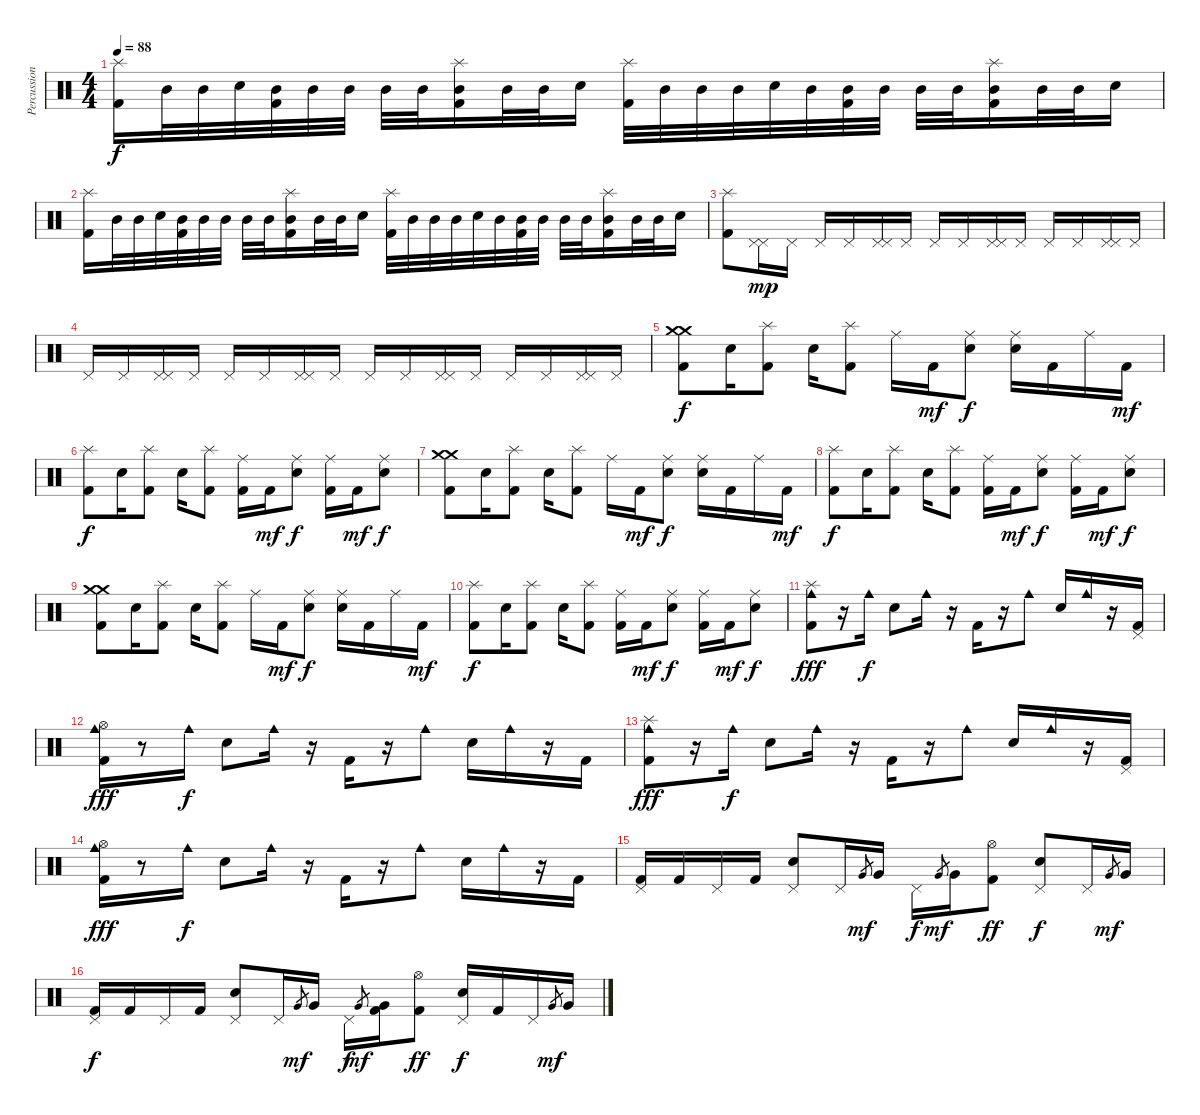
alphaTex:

\track ("Percussion" "Percussion") {instrument percussion}
\staff {score}
\articulation defaults
\ts (4 4)
\tempo 88
\clef neutral
\ks c
("Splash (hit)" "Kick (hit) 2").16{dy f} "Mid Tom (hit)".32 "Mid Tom (hit)".32 "Electric Snare (hit)".32 ("Mid Tom (hit)" "Kick (hit) 2").32 "Mid Tom (hit)".32 "Mid Tom (hit)".32 "Mid Tom (hit)".32 "Mid Tom (hit)".32 ("Splash (hit)" "Mid Tom (hit)" "Kick (hit) 2").16 "Mid Tom (hit)".32 "Mid Tom (hit)".32 "Electric Snare (hit)".16 ("Splash (hit)" "Kick (hit) 2").32 "Mid Tom (hit)".32 "Mid Tom (hit)".32 "Mid Tom (hit)".32 "Electric Snare (hit)".32 "Mid Tom (hit)".32 ("Mid Tom (hit)" "Kick (hit) 2").32 "Mid Tom (hit)".32 "Mid Tom (hit)".32 "Mid Tom (hit)".32 ("Splash (hit)" "Mid Tom (hit)" "Kick (hit) 2").16 "Mid Tom (hit)".32 "Mid Tom (hit)".32 "Electric Snare (hit)".16 |
("Splash (hit)" "Kick (hit) 2").16 "Mid Tom (hit)".32 "Mid Tom (hit)".32 "Electric Snare (hit)".32 ("Mid Tom (hit)" "Kick (hit) 2").32 "Mid Tom (hit)".32 "Mid Tom (hit)".32 "Mid Tom (hit)".32 "Mid Tom (hit)".32 ("Splash (hit)" "Mid Tom (hit)" "Kick (hit) 2").16 "Mid Tom (hit)".32 "Mid Tom (hit)".32 "Electric Snare (hit)".16 ("Splash (hit)" "Kick (hit) 2").32 "Mid Tom (hit)".32 "Mid Tom (hit)".32 "Mid Tom (hit)".32 "Electric Snare (hit)".32 "Mid Tom (hit)".32 ("Mid Tom (hit)" "Kick (hit) 2").32 "Mid Tom (hit)".32 "Mid Tom (hit)".32 "Mid Tom (hit)".32 ("Splash (hit)" "Mid Tom (hit)" "Kick (hit) 2").16 "Mid Tom (hit)".32 "Mid Tom (hit)".32 "Electric Snare (hit)".16 |
("Splash (hit)" "Kick (hit) 2").8{volume 10} ("Pedal Hi-Hat (hit)" "Pedal Hi-Hat (hit)").16{dy mp} "Pedal Hi-Hat (hit)".16 "Pedal Hi-Hat (hit)".16 "Pedal Hi-Hat (hit)".16 ("Pedal Hi-Hat (hit)" "Pedal Hi-Hat (hit)").16 "Pedal Hi-Hat (hit)".16 "Pedal Hi-Hat (hit)".16 "Pedal Hi-Hat (hit)".16 ("Pedal Hi-Hat (hit)" "Pedal Hi-Hat (hit)").16 "Pedal Hi-Hat (hit)".16 "Pedal Hi-Hat (hit)".16 "Pedal Hi-Hat (hit)".16 ("Pedal Hi-Hat (hit)" "Pedal Hi-Hat (hit)").16 "Pedal Hi-Hat (hit)".16 |
"Pedal Hi-Hat (hit)".16 "Pedal Hi-Hat (hit)".16 ("Pedal Hi-Hat (hit)" "Pedal Hi-Hat (hit)").16 "Pedal Hi-Hat (hit)".16 "Pedal Hi-Hat (hit)".16 "Pedal Hi-Hat (hit)".16 ("Pedal Hi-Hat (hit)" "Pedal Hi-Hat (hit)").16 "Pedal Hi-Hat (hit)".16 "Pedal Hi-Hat (hit)".16 "Pedal Hi-Hat (hit)".16 ("Pedal Hi-Hat (hit)" "Pedal Hi-Hat (hit)").16 "Pedal Hi-Hat (hit)".16 "Pedal Hi-Hat (hit)".16 "Pedal Hi-Hat (hit)".16 ("Pedal Hi-Hat (hit)" "Pedal Hi-Hat (hit)").16 "Pedal Hi-Hat (hit)".16 |
("Crash medium (hit)" "Crash medium (hit)" "Kick (hit) 2").8{dy f volume 14} "Electric Snare (hit)".16 ("Splash (hit)" "Kick (hit) 2").8 "Electric Snare (hit)".16 ("Splash (hit)" "Kick (hit) 2").8 "Ride (middle)".16 "Kick (hit) 2".16{dy mf} ("Ride (middle)" "Electric Snare (hit)").8{dy f} ("Ride (middle)" "Electric Snare (hit)").16 "Kick (hit) 2".16 "Ride (middle)".16 "Kick (hit) 2".16{dy mf} |
("Splash (hit)" "Kick (hit) 2").8{dy f} "Electric Snare (hit)".16 ("Splash (hit)" "Kick (hit) 2").8 "Electric Snare (hit)".16 ("Splash (hit)" "Kick (hit) 2").8 ("Ride (middle)" "Kick (hit) 2").16 "Kick (hit) 2".16{dy mf} ("Ride (middle)" "Electric Snare (hit)").8{dy f} ("Ride (middle)" "Kick (hit) 2").16 "Kick (hit) 2".16{dy mf} ("Ride (middle)" "Electric Snare (hit)").8{dy f} |
("Crash medium (hit)" "Crash medium (hit)" "Kick (hit) 2").8 "Electric Snare (hit)".16 ("Splash (hit)" "Kick (hit) 2").8 "Electric Snare (hit)".16 ("Splash (hit)" "Kick (hit) 2").8 "Ride (middle)".16 "Kick (hit) 2".16{dy mf} ("Ride (middle)" "Electric Snare (hit)").8{dy f} ("Ride (middle)" "Electric Snare (hit)").16 "Kick (hit) 2".16 "Ride (middle)".16 "Kick (hit) 2".16{dy mf} |
("Splash (hit)" "Kick (hit) 2").8{dy f} "Electric Snare (hit)".16 ("Splash (hit)" "Kick (hit) 2").8 "Electric Snare (hit)".16 ("Splash (hit)" "Kick (hit) 2").8 ("Ride (middle)" "Kick (hit) 2").16 "Kick (hit) 2".16{dy mf} ("Ride (middle)" "Electric Snare (hit)").8{dy f} ("Ride (middle)" "Kick (hit) 2").16 "Kick (hit) 2".16{dy mf} ("Ride (middle)" "Electric Snare (hit)").8{dy f} |
("Crash medium (hit)" "Crash medium (hit)" "Kick (hit) 2").8 "Electric Snare (hit)".16 ("Splash (hit)" "Kick (hit) 2").8 "Electric Snare (hit)".16 ("Splash (hit)" "Kick (hit) 2").8 "Ride (middle)".16 "Kick (hit) 2".16{dy mf} ("Ride (middle)" "Electric Snare (hit)").8{dy f} ("Ride (middle)" "Electric Snare (hit)").16 "Kick (hit) 2".16 "Ride (middle)".16 "Kick (hit) 2".16{dy mf} |
("Splash (hit)" "Kick (hit) 2").8{dy f} "Electric Snare (hit)".16 ("Splash (hit)" "Kick (hit) 2").8 "Electric Snare (hit)".16 ("Splash (hit)" "Kick (hit) 2").8 ("Ride (middle)" "Kick (hit) 2").16 "Kick (hit) 2".16{dy mf} ("Ride (middle)" "Electric Snare (hit)").8{dy f} ("Ride (middle)" "Kick (hit) 2").16 "Kick (hit) 2".16{dy mf} ("Ride (middle)" "Electric Snare (hit)").8{dy f} |
("Splash (hit)" "Cowbell medium (hit)" "Kick (hit) 2").8{dy fff} r.16 "Cowbell medium (hit)".16{dy f} "Electric Snare (hit)".8 "Cowbell medium (hit)".16 r.16 "Kick (hit) 2".16 r.16 "Cowbell medium (hit)".8 "Electric Snare (hit)".16 "Cowbell medium (hit)".16 r.16 ("Pedal Hi-Hat (hit)" "Kick (hit) 2").16 |
("Hi-Hat (open)" "Cowbell medium (hit)" "Kick (hit) 2").16{dy fff} r.8 "Cowbell medium (hit)".16{dy f} "Electric Snare (hit)".8 "Cowbell medium (hit)".16 r.16 "Kick (hit) 2".16 r.16 "Cowbell medium (hit)".8 "Electric Snare (hit)".16 "Cowbell medium (hit)".16 r.16 "Kick (hit) 2".16 |
("Splash (hit)" "Cowbell medium (hit)" "Kick (hit) 2").8{dy fff} r.16 "Cowbell medium (hit)".16{dy f} "Electric Snare (hit)".8 "Cowbell medium (hit)".16 r.16 "Kick (hit) 2".16 r.16 "Cowbell medium (hit)".8 "Electric Snare (hit)".16 "Cowbell medium (hit)".16 r.16 ("Pedal Hi-Hat (hit)" "Kick (hit) 2").16 |
("Hi-Hat (open)" "Cowbell medium (hit)" "Kick (hit) 2").16{dy fff} r.8 "Cowbell medium (hit)".16{dy f} "Electric Snare (hit)".8 "Cowbell medium (hit)".16 r.16 "Kick (hit) 2".16 r.16 "Cowbell medium (hit)".8 "Electric Snare (hit)".16 "Cowbell medium (hit)".16 r.16 "Kick (hit) 2".16 |
("Pedal Hi-Hat (hit)" "Kick (hit) 2").16 "Kick (hit) 2".16 "Pedal Hi-Hat (hit)".16 "Kick (hit) 2".16 ("Pedal Hi-Hat (hit)" "Electric Snare (hit)").8 "Pedal Hi-Hat (hit)".16 "Very Low Tom (hit)"{sl}.8{gr dy mf} "Very Low Tom (hit)".16 "Pedal Hi-Hat (hit)".16{dy f} "Very Low Tom (hit)"{sl}.8{gr dy mf} "Very Low Tom (hit)".16 ("Hi-Hat (open)" "Kick (hit) 2").8{dy ff} ("Pedal Hi-Hat (hit)" "Electric Snare (hit)").8{dy f} "Pedal Hi-Hat (hit)".16 "Very Low Tom (hit)"{sl}.8{gr dy mf} "Very Low Tom (hit)".16 |
("Pedal Hi-Hat (hit)" "Kick (hit) 2").16{dy f} "Kick (hit) 2".16 "Pedal Hi-Hat (hit)".16 "Kick (hit) 2".16 ("Pedal Hi-Hat (hit)" "Electric Snare (hit)").8 "Pedal Hi-Hat (hit)".16 "Very Low Tom (hit)"{sl}.8{gr dy mf} "Very Low Tom (hit)".16 "Pedal Hi-Hat (hit)".16{dy f} "Very Low Tom (hit)"{sl}.8{gr dy mf} ("Very Low Tom (hit)" "Kick (hit) 2").16 ("Hi-Hat (open)" "Kick (hit) 2").8{dy ff} ("Pedal Hi-Hat (hit)" "Electric Snare (hit)").16{dy f} "Kick (hit) 2".16 "Pedal Hi-Hat (hit)".16 "Very Low Tom (hit)"{sl}.8{gr dy mf} "Very Low Tom (hit)".16
